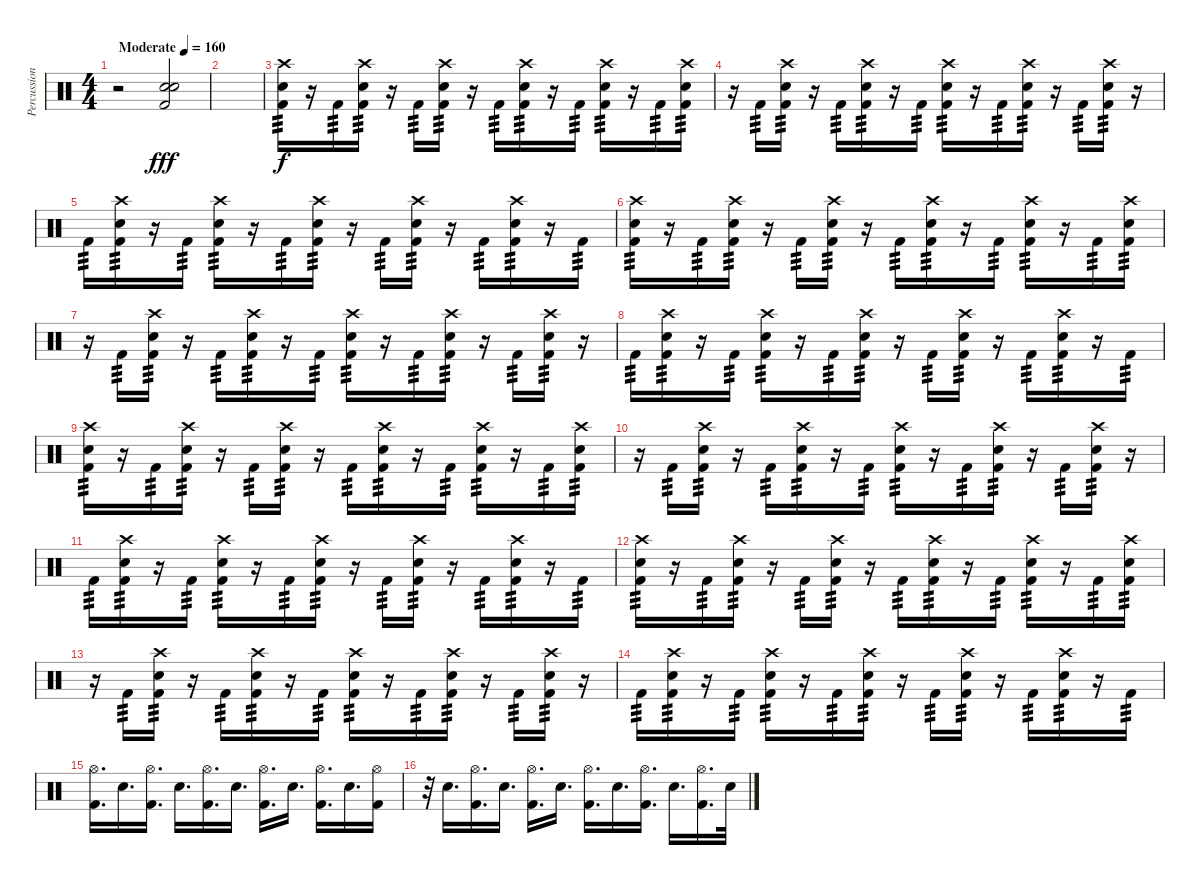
\track ("Percussion" "Percussion") {instrument percussion}
\staff {score}
\articulation defaults
\ts (4 4)
\tempo (160 "Moderate")
\clef neutral
\ks c
r.2{dy fff} ("Snare (hit) 2" "Electric Snare (hit)" "Kick (hit) 2").2 |
|
("Crash high (hit)" "Electric Snare (hit)" "Kick (hit) 2").16{tp 3 dy f} r.16 "Kick (hit) 2".16{tp 3} ("Crash high (hit)" "Electric Snare (hit)" "Kick (hit) 2").16{tp 3} r.16 "Kick (hit) 2".16{tp 3} ("Crash high (hit)" "Electric Snare (hit)" "Kick (hit) 2").16{tp 3} r.16 "Kick (hit) 2".16{tp 3} ("Crash high (hit)" "Electric Snare (hit)" "Kick (hit) 2").16{tp 3} r.16 "Kick (hit) 2".16{tp 3} ("Crash high (hit)" "Electric Snare (hit)" "Kick (hit) 2").16{tp 3} r.16 "Kick (hit) 2".16{tp 3} ("Crash high (hit)" "Electric Snare (hit)" "Kick (hit) 2").16{tp 3} |
r.16 "Kick (hit) 2".16{tp 3} ("Crash high (hit)" "Electric Snare (hit)" "Kick (hit) 2").16{tp 3} r.16 "Kick (hit) 2".16{tp 3} ("Crash high (hit)" "Electric Snare (hit)" "Kick (hit) 2").16{tp 3} r.16 "Kick (hit) 2".16{tp 3} ("Crash high (hit)" "Electric Snare (hit)" "Kick (hit) 2").16{tp 3} r.16 "Kick (hit) 2".16{tp 3} ("Crash high (hit)" "Electric Snare (hit)" "Kick (hit) 2").16{tp 3} r.16 "Kick (hit) 2".16{tp 3} ("Crash high (hit)" "Electric Snare (hit)" "Kick (hit) 2").16{tp 3} r.16 |
"Kick (hit) 2".16{tp 3} ("Crash high (hit)" "Electric Snare (hit)" "Kick (hit) 2").16{tp 3} r.16 "Kick (hit) 2".16{tp 3} ("Crash high (hit)" "Electric Snare (hit)" "Kick (hit) 2").16{tp 3} r.16 "Kick (hit) 2".16{tp 3} ("Crash high (hit)" "Electric Snare (hit)" "Kick (hit) 2").16{tp 3} r.16 "Kick (hit) 2".16{tp 3} ("Crash high (hit)" "Electric Snare (hit)" "Kick (hit) 2").16{tp 3} r.16 "Kick (hit) 2".16{tp 3} ("Crash high (hit)" "Electric Snare (hit)" "Kick (hit) 2").16{tp 3} r.16 "Kick (hit) 2".16{tp 3} |
("Crash high (hit)" "Electric Snare (hit)" "Kick (hit) 2").16{tp 3} r.16 "Kick (hit) 2".16{tp 3} ("Crash high (hit)" "Electric Snare (hit)" "Kick (hit) 2").16{tp 3} r.16 "Kick (hit) 2".16{tp 3} ("Crash high (hit)" "Electric Snare (hit)" "Kick (hit) 2").16{tp 3} r.16 "Kick (hit) 2".16{tp 3} ("Crash high (hit)" "Electric Snare (hit)" "Kick (hit) 2").16{tp 3} r.16 "Kick (hit) 2".16{tp 3} ("Crash high (hit)" "Electric Snare (hit)" "Kick (hit) 2").16{tp 3} r.16 "Kick (hit) 2".16{tp 3} ("Crash high (hit)" "Electric Snare (hit)" "Kick (hit) 2").16{tp 3} |
r.16 "Kick (hit) 2".16{tp 3} ("Crash high (hit)" "Electric Snare (hit)" "Kick (hit) 2").16{tp 3} r.16 "Kick (hit) 2".16{tp 3} ("Crash high (hit)" "Electric Snare (hit)" "Kick (hit) 2").16{tp 3} r.16 "Kick (hit) 2".16{tp 3} ("Crash high (hit)" "Electric Snare (hit)" "Kick (hit) 2").16{tp 3} r.16 "Kick (hit) 2".16{tp 3} ("Crash high (hit)" "Electric Snare (hit)" "Kick (hit) 2").16{tp 3} r.16 "Kick (hit) 2".16{tp 3} ("Crash high (hit)" "Electric Snare (hit)" "Kick (hit) 2").16{tp 3} r.16 |
"Kick (hit) 2".16{tp 3} ("Crash high (hit)" "Electric Snare (hit)" "Kick (hit) 2").16{tp 3} r.16 "Kick (hit) 2".16{tp 3} ("Crash high (hit)" "Electric Snare (hit)" "Kick (hit) 2").16{tp 3} r.16 "Kick (hit) 2".16{tp 3} ("Crash high (hit)" "Electric Snare (hit)" "Kick (hit) 2").16{tp 3} r.16 "Kick (hit) 2".16{tp 3} ("Crash high (hit)" "Electric Snare (hit)" "Kick (hit) 2").16{tp 3} r.16 "Kick (hit) 2".16{tp 3} ("Crash high (hit)" "Electric Snare (hit)" "Kick (hit) 2").16{tp 3} r.16 "Kick (hit) 2".16{tp 3} |
("Crash high (hit)" "Electric Snare (hit)" "Kick (hit) 2").16{tp 3} r.16 "Kick (hit) 2".16{tp 3} ("Crash high (hit)" "Electric Snare (hit)" "Kick (hit) 2").16{tp 3} r.16 "Kick (hit) 2".16{tp 3} ("Crash high (hit)" "Electric Snare (hit)" "Kick (hit) 2").16{tp 3} r.16 "Kick (hit) 2".16{tp 3} ("Crash high (hit)" "Electric Snare (hit)" "Kick (hit) 2").16{tp 3} r.16 "Kick (hit) 2".16{tp 3} ("Crash high (hit)" "Electric Snare (hit)" "Kick (hit) 2").16{tp 3} r.16 "Kick (hit) 2".16{tp 3} ("Crash high (hit)" "Electric Snare (hit)" "Kick (hit) 2").16{tp 3} |
r.16 "Kick (hit) 2".16{tp 3} ("Crash high (hit)" "Electric Snare (hit)" "Kick (hit) 2").16{tp 3} r.16 "Kick (hit) 2".16{tp 3} ("Crash high (hit)" "Electric Snare (hit)" "Kick (hit) 2").16{tp 3} r.16 "Kick (hit) 2".16{tp 3} ("Crash high (hit)" "Electric Snare (hit)" "Kick (hit) 2").16{tp 3} r.16 "Kick (hit) 2".16{tp 3} ("Crash high (hit)" "Electric Snare (hit)" "Kick (hit) 2").16{tp 3} r.16 "Kick (hit) 2".16{tp 3} ("Crash high (hit)" "Electric Snare (hit)" "Kick (hit) 2").16{tp 3} r.16 |
"Kick (hit) 2".16{tp 3} ("Crash high (hit)" "Electric Snare (hit)" "Kick (hit) 2").16{tp 3} r.16 "Kick (hit) 2".16{tp 3} ("Crash high (hit)" "Electric Snare (hit)" "Kick (hit) 2").16{tp 3} r.16 "Kick (hit) 2".16{tp 3} ("Crash high (hit)" "Electric Snare (hit)" "Kick (hit) 2").16{tp 3} r.16 "Kick (hit) 2".16{tp 3} ("Crash high (hit)" "Electric Snare (hit)" "Kick (hit) 2").16{tp 3} r.16 "Kick (hit) 2".16{tp 3} ("Crash high (hit)" "Electric Snare (hit)" "Kick (hit) 2").16{tp 3} r.16 "Kick (hit) 2".16{tp 3} |
("Crash high (hit)" "Electric Snare (hit)" "Kick (hit) 2").16{tp 3} r.16 "Kick (hit) 2".16{tp 3} ("Crash high (hit)" "Electric Snare (hit)" "Kick (hit) 2").16{tp 3} r.16 "Kick (hit) 2".16{tp 3} ("Crash high (hit)" "Electric Snare (hit)" "Kick (hit) 2").16{tp 3} r.16 "Kick (hit) 2".16{tp 3} ("Crash high (hit)" "Electric Snare (hit)" "Kick (hit) 2").16{tp 3} r.16 "Kick (hit) 2".16{tp 3} ("Crash high (hit)" "Electric Snare (hit)" "Kick (hit) 2").16{tp 3} r.16 "Kick (hit) 2".16{tp 3} ("Crash high (hit)" "Electric Snare (hit)" "Kick (hit) 2").16{tp 3} |
r.16 "Kick (hit) 2".16{tp 3} ("Crash high (hit)" "Electric Snare (hit)" "Kick (hit) 2").16{tp 3} r.16 "Kick (hit) 2".16{tp 3} ("Crash high (hit)" "Electric Snare (hit)" "Kick (hit) 2").16{tp 3} r.16 "Kick (hit) 2".16{tp 3} ("Crash high (hit)" "Electric Snare (hit)" "Kick (hit) 2").16{tp 3} r.16 "Kick (hit) 2".16{tp 3} ("Crash high (hit)" "Electric Snare (hit)" "Kick (hit) 2").16{tp 3} r.16 "Kick (hit) 2".16{tp 3} ("Crash high (hit)" "Electric Snare (hit)" "Kick (hit) 2").16{tp 3} r.16 |
"Kick (hit) 2".16{tp 3} ("Crash high (hit)" "Electric Snare (hit)" "Kick (hit) 2").16{tp 3} r.16 "Kick (hit) 2".16{tp 3} ("Crash high (hit)" "Electric Snare (hit)" "Kick (hit) 2").16{tp 3} r.16 "Kick (hit) 2".16{tp 3} ("Crash high (hit)" "Electric Snare (hit)" "Kick (hit) 2").16{tp 3} r.16 "Kick (hit) 2".16{tp 3} ("Crash high (hit)" "Electric Snare (hit)" "Kick (hit) 2").16{tp 3} r.16 "Kick (hit) 2".16{tp 3} ("Crash high (hit)" "Electric Snare (hit)" "Kick (hit) 2").16{tp 3} r.16 "Kick (hit) 2".16{tp 3} |
("Hi-Hat (open)" "Kick (hit) 2").16{d} "Electric Snare (hit)".16{d} ("Hi-Hat (open)" "Kick (hit) 2").16{d} "Electric Snare (hit)".16{d} ("Hi-Hat (open)" "Kick (hit) 2").16{d} "Electric Snare (hit)".16{d} ("Hi-Hat (open)" "Kick (hit) 2").16{d} "Electric Snare (hit)".16{d} ("Hi-Hat (open)" "Kick (hit) 2").16{d} "Electric Snare (hit)".16{d} ("Hi-Hat (open)" "Kick (hit) 2").16 |
r.32 "Electric Snare (hit)".16{d} ("Hi-Hat (open)" "Kick (hit) 2").16{d} "Electric Snare (hit)".16{d} ("Hi-Hat (open)" "Kick (hit) 2").16{d} "Electric Snare (hit)".16{d} ("Hi-Hat (open)" "Kick (hit) 2").16{d} "Electric Snare (hit)".16{d} ("Hi-Hat (open)" "Kick (hit) 2").16{d} "Electric Snare (hit)".16{d} ("Hi-Hat (open)" "Kick (hit) 2").16{d} "Electric Snare (hit)".32
